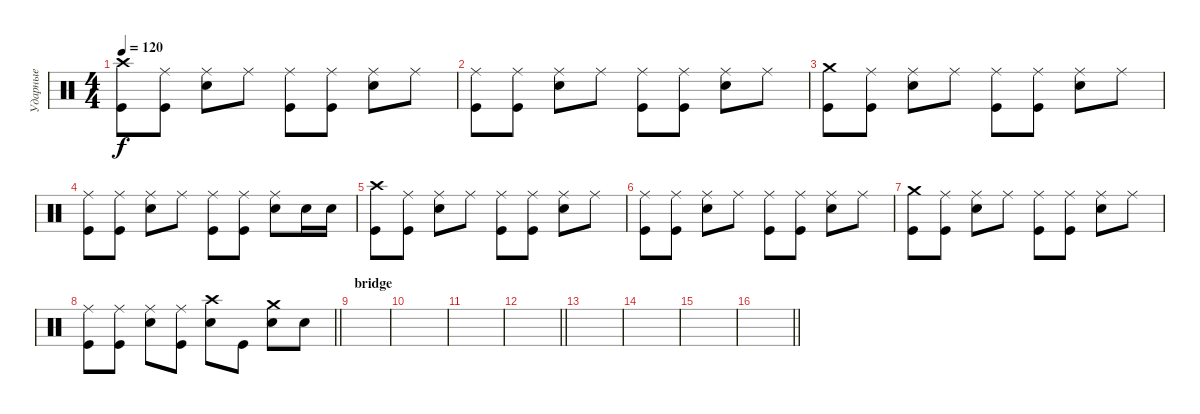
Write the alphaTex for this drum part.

\track ("Ударные" "Ударные") {instrument percussion}
\staff {score}
\articulation defaults
\ts (4 4)
\tempo 120
\clef neutral
\ks c
("Crash high (hit)" "Kick (hit)").8{dy f} ("Ride (middle)" "Kick (hit)").8 ("Ride (middle)" "Snare (hit) 2").8 "Ride (middle)".8 ("Ride (middle)" "Kick (hit)").8 ("Ride (middle)" "Kick (hit)").8 ("Ride (middle)" "Snare (hit) 2").8 "Ride (middle)".8 |
("Ride (middle)" "Kick (hit)").8 ("Ride (middle)" "Kick (hit)").8 ("Ride (middle)" "Snare (hit) 2").8 "Ride (middle)".8 ("Ride (middle)" "Kick (hit)").8 ("Ride (middle)" "Kick (hit)").8 ("Ride (middle)" "Snare (hit) 2").8 "Ride (middle)".8 |
("Crash medium (hit)" "Kick (hit)").8 ("Ride (middle)" "Kick (hit)").8 ("Ride (middle)" "Snare (hit) 2").8 "Ride (middle)".8 ("Ride (middle)" "Kick (hit)").8 ("Ride (middle)" "Kick (hit)").8 ("Ride (middle)" "Snare (hit) 2").8 "Ride (middle)".8 |
("Ride (middle)" "Kick (hit)").8 ("Ride (middle)" "Kick (hit)").8 ("Ride (middle)" "Snare (hit) 2").8 "Ride (middle)".8 ("Ride (middle)" "Kick (hit)").8 ("Ride (middle)" "Kick (hit)").8 ("Ride (middle)" "Snare (hit) 2").8 "Snare (hit) 2".16 "Snare (hit) 2".16 |
("Crash high (hit)" "Kick (hit)").8 ("Ride (middle)" "Kick (hit)").8 ("Ride (middle)" "Snare (hit) 2").8 "Ride (middle)".8 ("Ride (middle)" "Kick (hit)").8 ("Ride (middle)" "Kick (hit)").8 ("Ride (middle)" "Snare (hit) 2").8 "Ride (middle)".8 |
("Ride (middle)" "Kick (hit)").8 ("Ride (middle)" "Kick (hit)").8 ("Ride (middle)" "Snare (hit) 2").8 "Ride (middle)".8 ("Ride (middle)" "Kick (hit)").8 ("Ride (middle)" "Kick (hit)").8 ("Ride (middle)" "Snare (hit) 2").8 "Ride (middle)".8 |
("Crash medium (hit)" "Kick (hit)").8 ("Ride (middle)" "Kick (hit)").8 ("Ride (middle)" "Snare (hit) 2").8 "Ride (middle)".8 ("Ride (middle)" "Kick (hit)").8 ("Ride (middle)" "Kick (hit)").8 ("Ride (middle)" "Snare (hit) 2").8 "Ride (middle)".8 |
\barLineRight lightlight
("Ride (middle)" "Kick (hit)").8 ("Ride (middle)" "Kick (hit)").8 ("Ride (middle)" "Snare (hit) 2").8 ("Ride (middle)" "Kick (hit)").8 ("Crash high (hit)" "Snare (hit) 2").8 "Kick (hit)".8 ("Crash medium (hit)" "Snare (hit) 2").8 "Snare (hit) 2".8 |
\section ("" "bridge")
|
|
|
\barLineRight lightlight
|
|
|
|
\barLineRight lightlight
